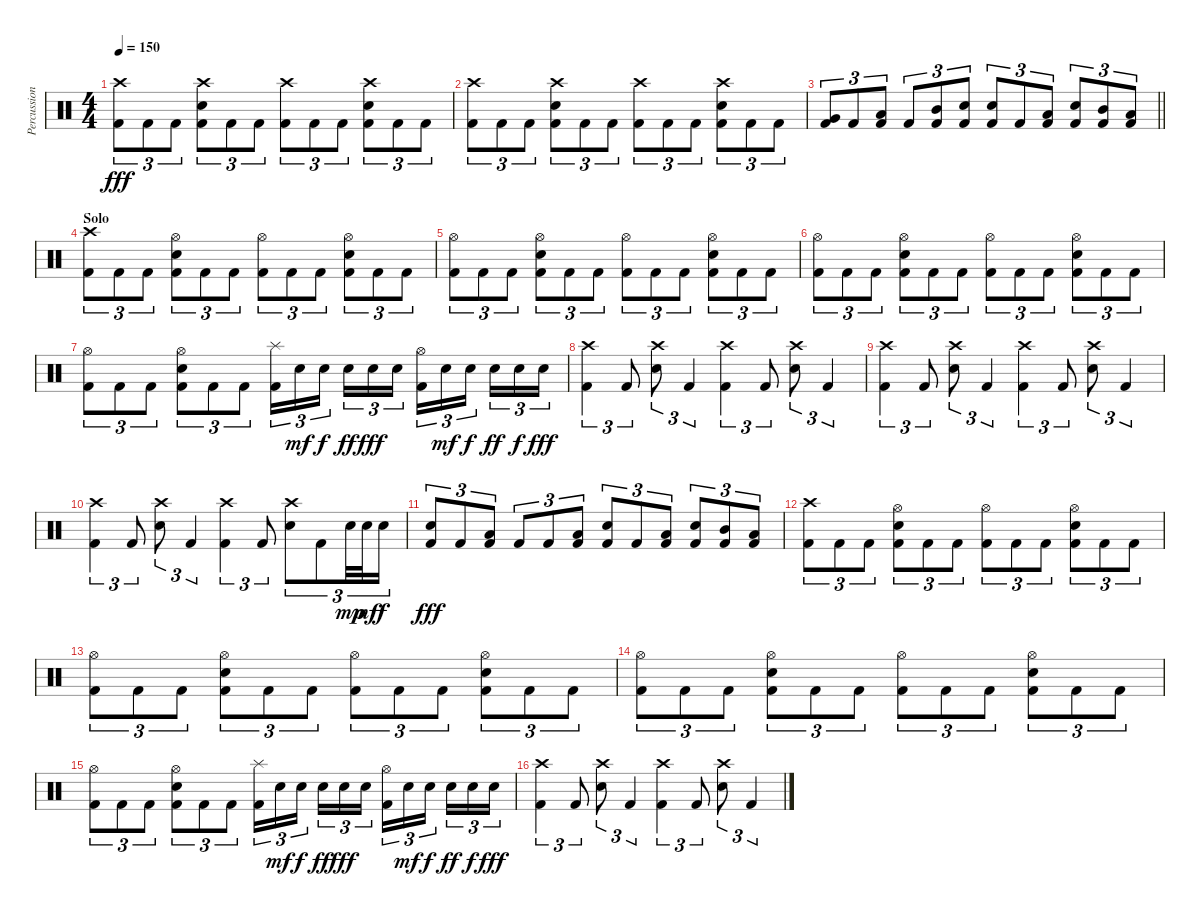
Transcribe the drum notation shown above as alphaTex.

\track ("Percussion" "Percussion") {instrument percussion}
\staff {score}
\articulation defaults
\ts (4 4)
\tempo 150
\clef neutral
\ks c
("Crash high (hit)" "Kick (hit) 2").8{tu (3 2) dy fff} "Kick (hit) 2".8{tu (3 2)} "Kick (hit) 2".8{tu (3 2)} ("Crash high (hit)" "Snare (hit) 2" "Kick (hit) 2").8{tu (3 2)} "Kick (hit) 2".8{tu (3 2)} "Kick (hit) 2".8{tu (3 2)} ("Crash high (hit)" "Kick (hit) 2").8{tu (3 2)} "Kick (hit) 2".8{tu (3 2)} "Kick (hit) 2".8{tu (3 2)} ("Crash high (hit)" "Snare (hit) 2" "Kick (hit) 2").8{tu (3 2)} "Kick (hit) 2".8{tu (3 2)} "Kick (hit) 2".8{tu (3 2)} |
("Crash high (hit)" "Kick (hit) 2").8{tu (3 2)} "Kick (hit) 2".8{tu (3 2)} "Kick (hit) 2".8{tu (3 2)} ("Crash high (hit)" "Snare (hit) 2" "Kick (hit) 2").8{tu (3 2)} "Kick (hit) 2".8{tu (3 2)} "Kick (hit) 2".8{tu (3 2)} ("Crash high (hit)" "Kick (hit) 2").8{tu (3 2)} "Kick (hit) 2".8{tu (3 2)} "Kick (hit) 2".8{tu (3 2)} ("Crash high (hit)" "Snare (hit) 2" "Kick (hit) 2").8{tu (3 2)} "Kick (hit) 2".8{tu (3 2)} "Kick (hit) 2".8{tu (3 2)} |
\barLineRight lightlight
("Very Low Tom (hit)" "Kick (hit) 2").8{tu (3 2)} "Kick (hit) 2".8{tu (3 2)} ("Low Floor Tom (hit)" "Kick (hit) 2").8{tu (3 2)} "Kick (hit) 2".8{tu (3 2)} ("Mid Tom (hit)" "Kick (hit) 2").8{tu (3 2)} ("Snare (hit) 2" "Kick (hit) 2").8{tu (3 2)} ("Snare (hit) 2" "Kick (hit) 2").8{tu (3 2)} "Kick (hit) 2".8{tu (3 2)} ("Low Floor Tom (hit)" "Kick (hit) 2").8{tu (3 2)} ("Snare (hit) 2" "Kick (hit) 2").8{tu (3 2)} ("Mid Tom (hit)" "Kick (hit) 2").8{tu (3 2)} ("Low Tom (hit)" "Kick (hit) 2").8{tu (3 2)} |
\section ("" "Solo")
("Crash high (hit)" "Kick (hit) 2").8{tu (3 2)} "Kick (hit) 2".8{tu (3 2)} "Kick (hit) 2".8{tu (3 2)} ("Snare (hit) 2" "Hi-Hat (open)" "Kick (hit) 2").8{tu (3 2)} "Kick (hit) 2".8{tu (3 2)} "Kick (hit) 2".8{tu (3 2)} ("Hi-Hat (open)" "Kick (hit) 2").8{tu (3 2)} "Kick (hit) 2".8{tu (3 2)} "Kick (hit) 2".8{tu (3 2)} ("Snare (hit) 2" "Hi-Hat (open)" "Kick (hit) 2").8{tu (3 2)} "Kick (hit) 2".8{tu (3 2)} "Kick (hit) 2".8{tu (3 2)} |
("Hi-Hat (open)" "Kick (hit) 2").8{tu (3 2)} "Kick (hit) 2".8{tu (3 2)} "Kick (hit) 2".8{tu (3 2)} ("Snare (hit) 2" "Hi-Hat (open)" "Kick (hit) 2").8{tu (3 2)} "Kick (hit) 2".8{tu (3 2)} "Kick (hit) 2".8{tu (3 2)} ("Hi-Hat (open)" "Kick (hit) 2").8{tu (3 2)} "Kick (hit) 2".8{tu (3 2)} "Kick (hit) 2".8{tu (3 2)} ("Snare (hit) 2" "Hi-Hat (open)" "Kick (hit) 2").8{tu (3 2)} "Kick (hit) 2".8{tu (3 2)} "Kick (hit) 2".8{tu (3 2)} |
("Hi-Hat (open)" "Kick (hit) 2").8{tu (3 2)} "Kick (hit) 2".8{tu (3 2)} "Kick (hit) 2".8{tu (3 2)} ("Snare (hit) 2" "Hi-Hat (open)" "Kick (hit) 2").8{tu (3 2)} "Kick (hit) 2".8{tu (3 2)} "Kick (hit) 2".8{tu (3 2)} ("Hi-Hat (open)" "Kick (hit) 2").8{tu (3 2)} "Kick (hit) 2".8{tu (3 2)} "Kick (hit) 2".8{tu (3 2)} ("Snare (hit) 2" "Hi-Hat (open)" "Kick (hit) 2").8{tu (3 2)} "Kick (hit) 2".8{tu (3 2)} "Kick (hit) 2".8{tu (3 2)} |
("Hi-Hat (open)" "Kick (hit) 2").8{tu (3 2)} "Kick (hit) 2".8{tu (3 2)} "Kick (hit) 2".8{tu (3 2)} ("Snare (hit) 2" "Hi-Hat (open)" "Kick (hit) 2").8{tu (3 2)} "Kick (hit) 2".8{tu (3 2)} "Kick (hit) 2".8{tu (3 2)} ("Splash (hit)" "Kick (hit) 2").16{tu (3 2)} "Snare (hit) 2".16{tu (3 2) dy mf} "Snare (hit) 2".16{tu (3 2) dy f beam splitsecondary} "Snare (hit) 2".16{tu (3 2) dy ff} "Snare (hit) 2".16{tu (3 2) dy fff} "Snare (hit) 2".16{tu (3 2)} ("Hi-Hat (open)" "Kick (hit) 2").16{tu (3 2)} "Snare (hit) 2".16{tu (3 2) dy mf} "Snare (hit) 2".16{tu (3 2) dy f beam splitsecondary} "Snare (hit) 2".16{tu (3 2) dy ff} "Snare (hit) 2".16{tu (3 2) dy f} "Snare (hit) 2".16{tu (3 2) dy fff} |
("Crash high (hit)" "Kick (hit) 2").4{tu (3 2)} "Kick (hit) 2".8{tu (3 2)} ("Crash high (hit)" "Snare (hit) 2").8{tu (3 2)} "Kick (hit) 2".4{tu (3 2)} ("Crash high (hit)" "Kick (hit) 2").4{tu (3 2)} "Kick (hit) 2".8{tu (3 2)} ("Crash high (hit)" "Snare (hit) 2").8{tu (3 2)} "Kick (hit) 2".4{tu (3 2)} |
("Crash high (hit)" "Kick (hit) 2").4{tu (3 2)} "Kick (hit) 2".8{tu (3 2)} ("Crash high (hit)" "Snare (hit) 2").8{tu (3 2)} "Kick (hit) 2".4{tu (3 2)} ("Crash high (hit)" "Kick (hit) 2").4{tu (3 2)} "Kick (hit) 2".8{tu (3 2)} ("Crash high (hit)" "Snare (hit) 2").8{tu (3 2)} "Kick (hit) 2".4{tu (3 2)} |
("Crash high (hit)" "Kick (hit) 2").4{tu (3 2)} "Kick (hit) 2".8{tu (3 2)} ("Crash high (hit)" "Snare (hit) 2").8{tu (3 2)} "Kick (hit) 2".4{tu (3 2)} ("Crash high (hit)" "Kick (hit) 2").4{tu (3 2)} "Kick (hit) 2".8{tu (3 2)} ("Crash high (hit)" "Snare (hit) 2").8{tu (3 2)} "Kick (hit) 2".8{tu (3 2)} "Snare (hit) 2".32{tu (3 2) dy mp} "Snare (hit) 2".32{tu (3 2) dy mf} "Snare (hit) 2".16{tu (3 2) dy f} |
("Snare (hit) 2" "Kick (hit) 2").8{tu (3 2) dy fff} "Kick (hit) 2".8{tu (3 2)} ("Low Floor Tom (hit)" "Kick (hit) 2").8{tu (3 2)} "Kick (hit) 2".8{tu (3 2)} "Kick (hit) 2".8{tu (3 2)} ("Low Floor Tom (hit)" "Kick (hit) 2").8{tu (3 2)} ("Snare (hit) 2" "Kick (hit) 2").8{tu (3 2)} "Kick (hit) 2".8{tu (3 2)} ("Low Floor Tom (hit)" "Kick (hit) 2").8{tu (3 2)} ("Snare (hit) 2" "Kick (hit) 2").8{tu (3 2)} ("Mid Tom (hit)" "Kick (hit) 2").8{tu (3 2)} ("Low Tom (hit)" "Kick (hit) 2").8{tu (3 2)} |
("Crash high (hit)" "Kick (hit) 2").8{tu (3 2)} "Kick (hit) 2".8{tu (3 2)} "Kick (hit) 2".8{tu (3 2)} ("Snare (hit) 2" "Hi-Hat (open)" "Kick (hit) 2").8{tu (3 2)} "Kick (hit) 2".8{tu (3 2)} "Kick (hit) 2".8{tu (3 2)} ("Hi-Hat (open)" "Kick (hit) 2").8{tu (3 2)} "Kick (hit) 2".8{tu (3 2)} "Kick (hit) 2".8{tu (3 2)} ("Snare (hit) 2" "Hi-Hat (open)" "Kick (hit) 2").8{tu (3 2)} "Kick (hit) 2".8{tu (3 2)} "Kick (hit) 2".8{tu (3 2)} |
("Hi-Hat (open)" "Kick (hit) 2").8{tu (3 2)} "Kick (hit) 2".8{tu (3 2)} "Kick (hit) 2".8{tu (3 2)} ("Snare (hit) 2" "Hi-Hat (open)" "Kick (hit) 2").8{tu (3 2)} "Kick (hit) 2".8{tu (3 2)} "Kick (hit) 2".8{tu (3 2)} ("Hi-Hat (open)" "Kick (hit) 2").8{tu (3 2)} "Kick (hit) 2".8{tu (3 2)} "Kick (hit) 2".8{tu (3 2)} ("Snare (hit) 2" "Hi-Hat (open)" "Kick (hit) 2").8{tu (3 2)} "Kick (hit) 2".8{tu (3 2)} "Kick (hit) 2".8{tu (3 2)} |
("Hi-Hat (open)" "Kick (hit) 2").8{tu (3 2)} "Kick (hit) 2".8{tu (3 2)} "Kick (hit) 2".8{tu (3 2)} ("Snare (hit) 2" "Hi-Hat (open)" "Kick (hit) 2").8{tu (3 2)} "Kick (hit) 2".8{tu (3 2)} "Kick (hit) 2".8{tu (3 2)} ("Hi-Hat (open)" "Kick (hit) 2").8{tu (3 2)} "Kick (hit) 2".8{tu (3 2)} "Kick (hit) 2".8{tu (3 2)} ("Snare (hit) 2" "Hi-Hat (open)" "Kick (hit) 2").8{tu (3 2)} "Kick (hit) 2".8{tu (3 2)} "Kick (hit) 2".8{tu (3 2)} |
("Hi-Hat (open)" "Kick (hit) 2").8{tu (3 2)} "Kick (hit) 2".8{tu (3 2)} "Kick (hit) 2".8{tu (3 2)} ("Snare (hit) 2" "Hi-Hat (open)" "Kick (hit) 2").8{tu (3 2)} "Kick (hit) 2".8{tu (3 2)} "Kick (hit) 2".8{tu (3 2)} ("Splash (hit)" "Kick (hit) 2").16{tu (3 2)} "Snare (hit) 2".16{tu (3 2) dy mf} "Snare (hit) 2".16{tu (3 2) dy f beam splitsecondary} "Snare (hit) 2".16{tu (3 2) dy ff} "Snare (hit) 2".16{tu (3 2) dy fff} "Snare (hit) 2".16{tu (3 2)} ("Hi-Hat (open)" "Kick (hit) 2").16{tu (3 2)} "Snare (hit) 2".16{tu (3 2) dy mf} "Snare (hit) 2".16{tu (3 2) dy f beam splitsecondary} "Snare (hit) 2".16{tu (3 2) dy ff} "Snare (hit) 2".16{tu (3 2) dy f} "Snare (hit) 2".16{tu (3 2) dy fff} |
("Crash high (hit)" "Kick (hit) 2").4{tu (3 2)} "Kick (hit) 2".8{tu (3 2)} ("Crash high (hit)" "Snare (hit) 2").8{tu (3 2)} "Kick (hit) 2".4{tu (3 2)} ("Crash high (hit)" "Kick (hit) 2").4{tu (3 2)} "Kick (hit) 2".8{tu (3 2)} ("Crash high (hit)" "Snare (hit) 2").8{tu (3 2)} "Kick (hit) 2".4{tu (3 2)}
